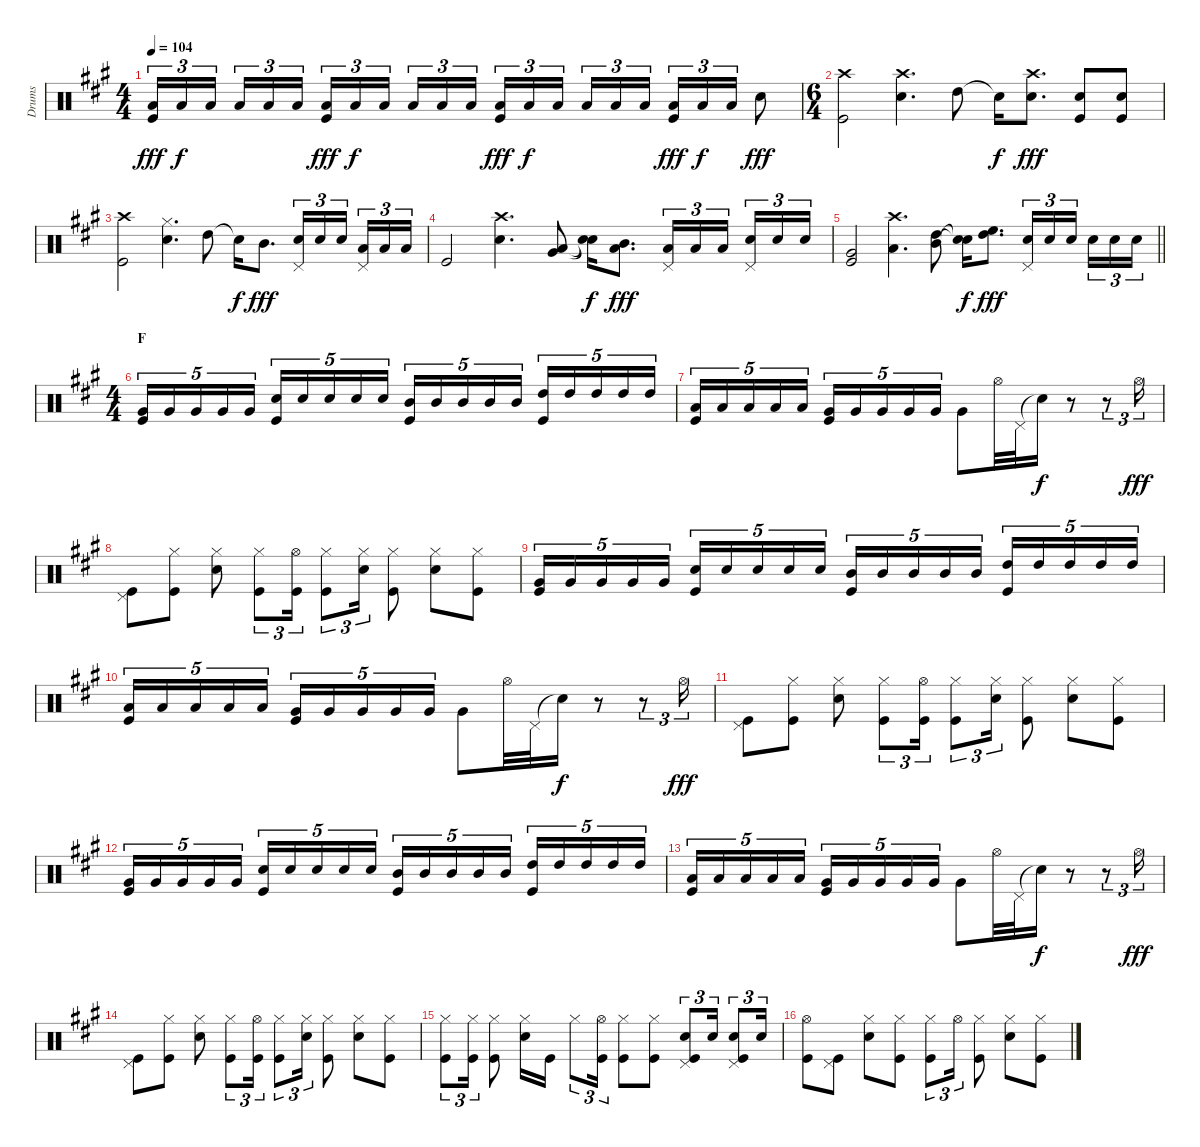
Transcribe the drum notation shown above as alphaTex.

\track ("Drums" "Drums") {instrument percussion}
\staff {score}
\articulation defaults
\ts (4 4)
\tempo 104
\clef neutral
\ks a
("Low Tom (hit)" "Kick (hit)").16{tu (3 2) dy fff} "Low Tom (hit)".16{tu (3 2) dy f} "Low Tom (hit)".16{tu (3 2)} "Low Tom (hit)".16{tu (3 2)} "Low Tom (hit)".16{tu (3 2)} "Low Tom (hit)".16{tu (3 2)} ("Low Tom (hit)" "Kick (hit)").16{tu (3 2) dy fff} "Low Tom (hit)".16{tu (3 2) dy f} "Low Tom (hit)".16{tu (3 2)} "Low Tom (hit)".16{tu (3 2)} "Low Tom (hit)".16{tu (3 2)} "Low Tom (hit)".16{tu (3 2)} ("Low Tom (hit)" "Kick (hit)").16{tu (3 2) dy fff} "Low Tom (hit)".16{tu (3 2) dy f} "Low Tom (hit)".16{tu (3 2)} "Low Tom (hit)".16{tu (3 2)} "Low Tom (hit)".16{tu (3 2)} "Low Tom (hit)".16{tu (3 2)} ("Low Tom (hit)" "Kick (hit)").16{tu (3 2) dy fff} "Low Tom (hit)".16{tu (3 2) dy f} "Low Tom (hit)".16{tu (3 2)} "Snare (hit) 2".8{dy fff} |
\ts (6 4)
("Crash high (hit)" "Kick (hit)").2 ("Crash high (hit)" "Snare (hit) 2").4{d} "High Tom (hit)".8 "Snare (hit)"{t}.16{dy f} ("Crash high (hit)" "Snare (hit) 2").8{d dy fff} ("Snare (hit) 2" "Kick (hit)").8 ("Snare (hit) 2" "Kick (hit)").8 |
("Crash high (hit)" "Kick (hit)").2 ("Hi-Hat (closed)" "Snare (hit) 2").4{d} "High Tom (hit)".8 "Snare (hit)"{t}.16{dy f} "Mid Tom (hit)".8{d dy fff} ("Pedal Hi-Hat (hit)" "Snare (hit) 2").16{tu (3 2)} "Snare (hit) 2".16{tu (3 2)} "Snare (hit) 2".16{tu (3 2)} ("Pedal Hi-Hat (hit)" "Low Tom (hit)").16{tu (3 2)} "Low Tom (hit)".16{tu (3 2)} "Low Tom (hit)".16{tu (3 2)} |
"Kick (hit)".2 ("Crash high (hit)" "Snare (hit) 2").4{d} ("Low Tom (hit)" "Very Low Tom (hit)").8 ("Snare (hit)"{t} "Snare (hit)"{t}).16{dy f} ("Mid Tom (hit)" "Low Tom (hit)").8{d dy fff} ("Pedal Hi-Hat (hit)" "Low Tom (hit)").16{tu (3 2)} "Low Tom (hit)".16{tu (3 2)} "Low Tom (hit)".16{tu (3 2)} ("Pedal Hi-Hat (hit)" "Snare (hit) 2").16{tu (3 2)} "Snare (hit) 2".16{tu (3 2)} "Snare (hit) 2".16{tu (3 2)} |
\barLineRight lightlight
("Very Low Tom (hit)" "Kick (hit)").2 ("Crash high (hit)" "Low Floor Tom (hit)").4{d} ("High Tom (hit)" "Mid Tom (hit)").8 ("Snare (hit)"{t} "Snare (hit)"{t}).16{dy f} ("High Floor Tom (hit)" "High Tom (hit)").8{d dy fff} ("Pedal Hi-Hat (hit)" "Snare (hit) 2").16{tu (3 2)} "Snare (hit) 2".16{tu (3 2)} "Snare (hit) 2".16{tu (3 2)} "Snare (hit) 2".16{tu (3 2)} "Snare (hit) 2".16{tu (3 2)} "Snare (hit) 2".16{tu (3 2)} |
\ts (4 4)
\section ("" "F")
("Very Low Tom (hit)" "Kick (hit)").16{tu (5 4)} "Very Low Tom (hit)".16{tu (5 4)} "Very Low Tom (hit)".16{tu (5 4)} "Very Low Tom (hit)".16{tu (5 4)} "Very Low Tom (hit)".16{tu (5 4)} ("Snare (hit) 2" "Kick (hit)").16{tu (5 4)} "Snare (hit) 2".16{tu (5 4)} "Snare (hit) 2".16{tu (5 4)} "Snare (hit) 2".16{tu (5 4)} "Snare (hit) 2".16{tu (5 4)} ("Mid Tom (hit)" "Kick (hit)").16{tu (5 4)} "Mid Tom (hit)".16{tu (5 4)} "Mid Tom (hit)".16{tu (5 4)} "Mid Tom (hit)".16{tu (5 4)} "Mid Tom (hit)".16{tu (5 4)} ("High Tom (hit)" "Kick (hit)").16{tu (5 4)} "High Tom (hit)".16{tu (5 4)} "High Tom (hit)".16{tu (5 4)} "High Tom (hit)".16{tu (5 4)} "High Tom (hit)".16{tu (5 4)} |
("Low Tom (hit)" "Kick (hit)").16{tu (5 4)} "Low Tom (hit)".16{tu (5 4)} "Low Tom (hit)".16{tu (5 4)} "Low Tom (hit)".16{tu (5 4)} "Low Tom (hit)".16{tu (5 4)} ("Very Low Tom (hit)" "Kick (hit)").16{tu (5 4)} "Very Low Tom (hit)".16{tu (5 4)} "Very Low Tom (hit)".16{tu (5 4)} "Very Low Tom (hit)".16{tu (5 4)} "Very Low Tom (hit)".16{tu (5 4)} "Very Low Tom (hit)".8 "Hi-Hat (open)".32 "Pedal Hi-Hat (hit)".32 "Snare (hit)"{t}.16{dy f} r.8 r.8{tu (3 2)} "Hi-Hat (open)".16{tu (3 2) dy fff} |
("Pedal Hi-Hat (hit)" "Kick (hit)").8 ("Hi-Hat (closed)" "Kick (hit)").8 ("Hi-Hat (closed)" "Snare (hit) 2").8 ("Hi-Hat (closed)" "Kick (hit)").8{tu (3 2)} ("Hi-Hat (open)" "Kick (hit)").16{tu (3 2)} ("Hi-Hat (closed)" "Kick (hit)").8{tu (3 2)} ("Hi-Hat (closed)" "Snare (hit) 2").16{tu (3 2)} ("Hi-Hat (closed)" "Kick (hit)").8 ("Hi-Hat (closed)" "Snare (hit) 2").8 ("Hi-Hat (closed)" "Kick (hit)").8 |
("Very Low Tom (hit)" "Kick (hit)").16{tu (5 4)} "Very Low Tom (hit)".16{tu (5 4)} "Very Low Tom (hit)".16{tu (5 4)} "Very Low Tom (hit)".16{tu (5 4)} "Very Low Tom (hit)".16{tu (5 4)} ("Snare (hit) 2" "Kick (hit)").16{tu (5 4)} "Snare (hit) 2".16{tu (5 4)} "Snare (hit) 2".16{tu (5 4)} "Snare (hit) 2".16{tu (5 4)} "Snare (hit) 2".16{tu (5 4)} ("Mid Tom (hit)" "Kick (hit)").16{tu (5 4)} "Mid Tom (hit)".16{tu (5 4)} "Mid Tom (hit)".16{tu (5 4)} "Mid Tom (hit)".16{tu (5 4)} "Mid Tom (hit)".16{tu (5 4)} ("High Tom (hit)" "Kick (hit)").16{tu (5 4)} "High Tom (hit)".16{tu (5 4)} "High Tom (hit)".16{tu (5 4)} "High Tom (hit)".16{tu (5 4)} "High Tom (hit)".16{tu (5 4)} |
("Low Tom (hit)" "Kick (hit)").16{tu (5 4)} "Low Tom (hit)".16{tu (5 4)} "Low Tom (hit)".16{tu (5 4)} "Low Tom (hit)".16{tu (5 4)} "Low Tom (hit)".16{tu (5 4)} ("Very Low Tom (hit)" "Kick (hit)").16{tu (5 4)} "Very Low Tom (hit)".16{tu (5 4)} "Very Low Tom (hit)".16{tu (5 4)} "Very Low Tom (hit)".16{tu (5 4)} "Very Low Tom (hit)".16{tu (5 4)} "Very Low Tom (hit)".8 "Hi-Hat (open)".32 "Pedal Hi-Hat (hit)".32 "Snare (hit)"{t}.16{dy f} r.8 r.8{tu (3 2)} "Hi-Hat (open)".16{tu (3 2) dy fff} |
("Pedal Hi-Hat (hit)" "Kick (hit)").8 ("Hi-Hat (closed)" "Kick (hit)").8 ("Hi-Hat (closed)" "Snare (hit) 2").8 ("Hi-Hat (closed)" "Kick (hit)").8{tu (3 2)} ("Hi-Hat (open)" "Kick (hit)").16{tu (3 2)} ("Hi-Hat (closed)" "Kick (hit)").8{tu (3 2)} ("Hi-Hat (closed)" "Snare (hit) 2").16{tu (3 2)} ("Hi-Hat (closed)" "Kick (hit)").8 ("Hi-Hat (closed)" "Snare (hit) 2").8 ("Hi-Hat (closed)" "Kick (hit)").8 |
("Very Low Tom (hit)" "Kick (hit)").16{tu (5 4)} "Very Low Tom (hit)".16{tu (5 4)} "Very Low Tom (hit)".16{tu (5 4)} "Very Low Tom (hit)".16{tu (5 4)} "Very Low Tom (hit)".16{tu (5 4)} ("Snare (hit) 2" "Kick (hit)").16{tu (5 4)} "Snare (hit) 2".16{tu (5 4)} "Snare (hit) 2".16{tu (5 4)} "Snare (hit) 2".16{tu (5 4)} "Snare (hit) 2".16{tu (5 4)} ("Mid Tom (hit)" "Kick (hit)").16{tu (5 4)} "Mid Tom (hit)".16{tu (5 4)} "Mid Tom (hit)".16{tu (5 4)} "Mid Tom (hit)".16{tu (5 4)} "Mid Tom (hit)".16{tu (5 4)} ("High Tom (hit)" "Kick (hit)").16{tu (5 4)} "High Tom (hit)".16{tu (5 4)} "High Tom (hit)".16{tu (5 4)} "High Tom (hit)".16{tu (5 4)} "High Tom (hit)".16{tu (5 4)} |
("Low Tom (hit)" "Kick (hit)").16{tu (5 4)} "Low Tom (hit)".16{tu (5 4)} "Low Tom (hit)".16{tu (5 4)} "Low Tom (hit)".16{tu (5 4)} "Low Tom (hit)".16{tu (5 4)} ("Very Low Tom (hit)" "Kick (hit)").16{tu (5 4)} "Very Low Tom (hit)".16{tu (5 4)} "Very Low Tom (hit)".16{tu (5 4)} "Very Low Tom (hit)".16{tu (5 4)} "Very Low Tom (hit)".16{tu (5 4)} "Very Low Tom (hit)".8 "Hi-Hat (open)".32 "Pedal Hi-Hat (hit)".32 "Snare (hit)"{t}.16{dy f} r.8 r.8{tu (3 2)} "Hi-Hat (open)".16{tu (3 2) dy fff} |
("Pedal Hi-Hat (hit)" "Kick (hit)").8 ("Hi-Hat (closed)" "Kick (hit)").8 ("Hi-Hat (closed)" "Snare (hit) 2").8 ("Hi-Hat (closed)" "Kick (hit)").8{tu (3 2)} ("Hi-Hat (open)" "Kick (hit)").16{tu (3 2)} ("Hi-Hat (closed)" "Kick (hit)").8{tu (3 2)} ("Hi-Hat (closed)" "Snare (hit) 2").16{tu (3 2)} ("Hi-Hat (closed)" "Kick (hit)").8 ("Hi-Hat (closed)" "Snare (hit) 2").8 ("Hi-Hat (closed)" "Kick (hit)").8 |
("Hi-Hat (closed)" "Kick (hit)").8{tu (3 2)} ("Hi-Hat (closed)" "Kick (hit)").16{tu (3 2)} ("Hi-Hat (closed)" "Kick (hit)").8 ("Hi-Hat (closed)" "Snare (hit) 2").16 "Kick (hit)".16 "Hi-Hat (closed)".8{tu (3 2)} ("Hi-Hat (open)" "Kick (hit)").16{tu (3 2)} ("Hi-Hat (closed)" "Kick (hit)").8 ("Hi-Hat (closed)" "Kick (hit)").8 ("Pedal Hi-Hat (hit)" "Snare (hit) 2" "Kick (hit)").8{tu (3 2)} "Snare (hit) 2".16{tu (3 2)} ("Pedal Hi-Hat (hit)" "Snare (hit) 2" "Kick (hit)").8{tu (3 2)} "Snare (hit) 2".16{tu (3 2)} |
("Hi-Hat (open)" "Kick (hit)").8 ("Pedal Hi-Hat (hit)" "Kick (hit)").8 ("Hi-Hat (closed)" "Snare (hit) 2").8 ("Hi-Hat (closed)" "Kick (hit)").8 ("Hi-Hat (closed)" "Kick (hit)").8{tu (3 2)} "Hi-Hat (open)".16{tu (3 2)} ("Hi-Hat (closed)" "Kick (hit)").8 ("Hi-Hat (closed)" "Snare (hit) 2").8 ("Hi-Hat (closed)" "Kick (hit)").8
